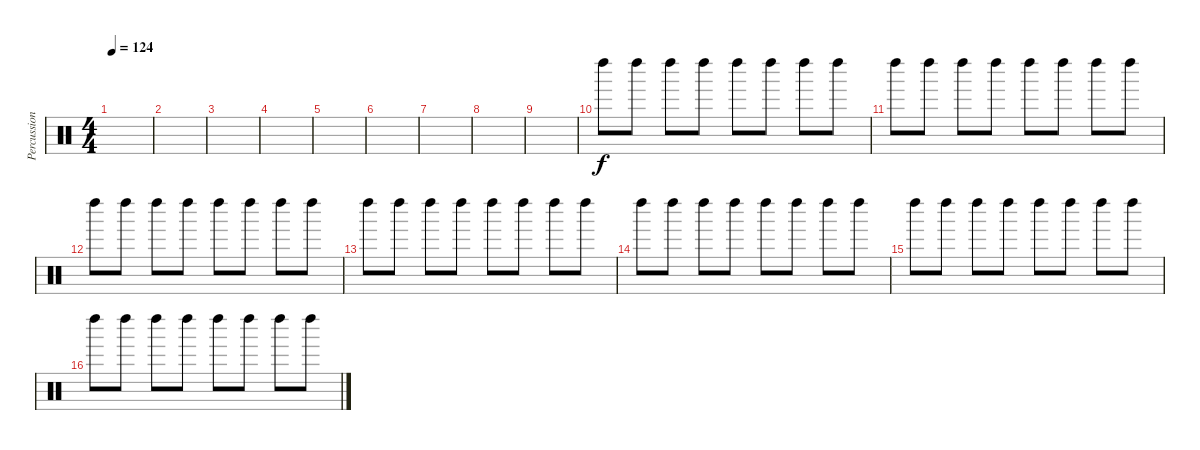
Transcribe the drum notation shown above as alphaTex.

\track ("Percussioni" "Percussion") {instrument percussion}
\staff {score}
\articulation defaults
\ts (4 4)
\tempo 124
\clef neutral
\ks c
|
|
|
|
|
|
|
|
|
"Left Maraca (hit)".8 "Left Maraca (hit)".8 "Left Maraca (hit)".8 "Left Maraca (hit)".8 "Left Maraca (hit)".8 "Left Maraca (hit)".8 "Left Maraca (hit)".8 "Left Maraca (hit)".8 |
"Left Maraca (hit)".8 "Left Maraca (hit)".8 "Left Maraca (hit)".8 "Left Maraca (hit)".8 "Left Maraca (hit)".8 "Left Maraca (hit)".8 "Left Maraca (hit)".8 "Left Maraca (hit)".8 |
"Left Maraca (hit)".8 "Left Maraca (hit)".8 "Left Maraca (hit)".8 "Left Maraca (hit)".8 "Left Maraca (hit)".8 "Left Maraca (hit)".8 "Left Maraca (hit)".8 "Left Maraca (hit)".8 |
"Left Maraca (hit)".8 "Left Maraca (hit)".8 "Left Maraca (hit)".8 "Left Maraca (hit)".8 "Left Maraca (hit)".8 "Left Maraca (hit)".8 "Left Maraca (hit)".8 "Left Maraca (hit)".8 |
"Left Maraca (hit)".8 "Left Maraca (hit)".8 "Left Maraca (hit)".8 "Left Maraca (hit)".8 "Left Maraca (hit)".8 "Left Maraca (hit)".8 "Left Maraca (hit)".8 "Left Maraca (hit)".8 |
"Left Maraca (hit)".8 "Left Maraca (hit)".8 "Left Maraca (hit)".8 "Left Maraca (hit)".8 "Left Maraca (hit)".8 "Left Maraca (hit)".8 "Left Maraca (hit)".8 "Left Maraca (hit)".8 |
"Left Maraca (hit)".8 "Left Maraca (hit)".8 "Left Maraca (hit)".8 "Left Maraca (hit)".8 "Left Maraca (hit)".8 "Left Maraca (hit)".8 "Left Maraca (hit)".8 "Left Maraca (hit)".8
